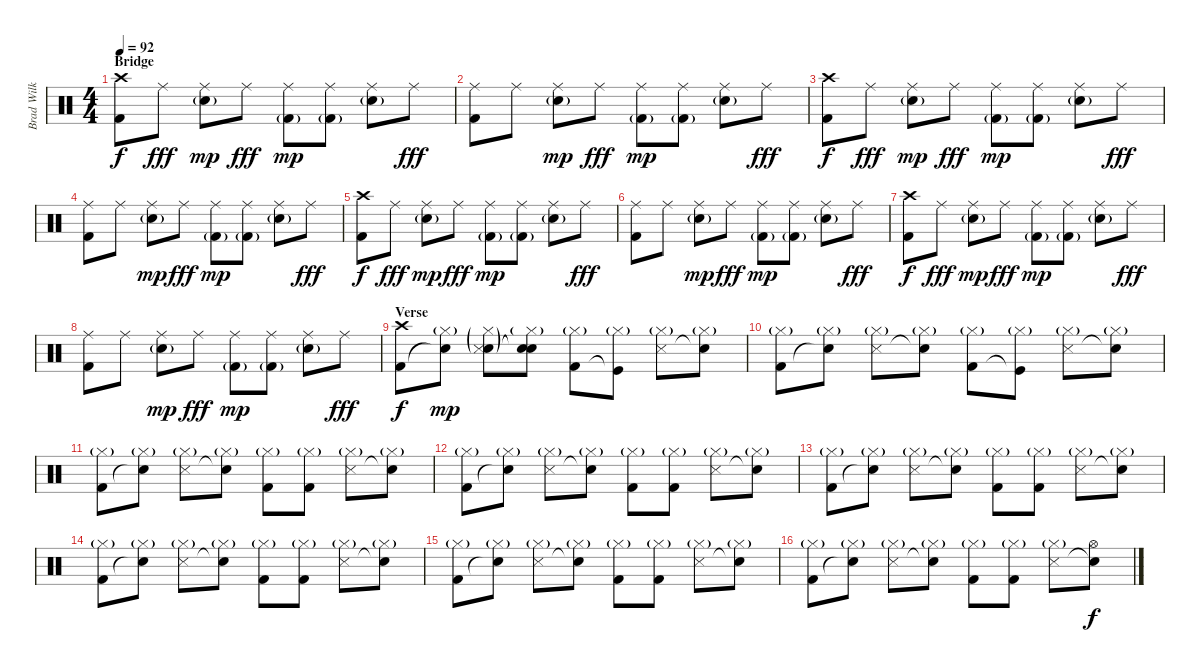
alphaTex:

\track ("Brad Wilk" "Brad Wilk") {instrument percussion}
\staff {score}
\articulation defaults
\ts (4 4)
\section ("" "Bridge")
\tempo 92
\clef neutral
\ks c
("Crash high (hit)" "Kick (hit) 2").8{dy f} "Ride (middle)".8{dy fff} ("Ride (middle)" "Electric Snare (hit)"{g}).8{dy mp} "Ride (middle)".8{dy fff} ("Ride (middle)" "Kick (hit) 2"{g}).8{dy mp} ("Ride (middle)" "Kick (hit) 2"{g}).8 ("Ride (middle)" "Electric Snare (hit)"{g}).8 "Ride (middle)".8{dy fff} |
("Ride (middle)" "Kick (hit) 2").8 "Ride (middle)".8 ("Ride (middle)" "Electric Snare (hit)"{g}).8{dy mp} "Ride (middle)".8{dy fff} ("Ride (middle)" "Kick (hit) 2"{g}).8{dy mp} ("Ride (middle)" "Kick (hit) 2"{g}).8 ("Ride (middle)" "Electric Snare (hit)"{g}).8 "Ride (middle)".8{dy fff} |
("Crash high (hit)" "Kick (hit) 2").8{dy f} "Ride (middle)".8{dy fff} ("Ride (middle)" "Electric Snare (hit)"{g}).8{dy mp} "Ride (middle)".8{dy fff} ("Ride (middle)" "Kick (hit) 2"{g}).8{dy mp} ("Ride (middle)" "Kick (hit) 2"{g}).8 ("Ride (middle)" "Electric Snare (hit)"{g}).8 "Ride (middle)".8{dy fff} |
("Ride (middle)" "Kick (hit) 2").8 "Ride (middle)".8 ("Ride (middle)" "Electric Snare (hit)"{g}).8{dy mp} "Ride (middle)".8{dy fff} ("Ride (middle)" "Kick (hit) 2"{g}).8{dy mp} ("Ride (middle)" "Kick (hit) 2"{g}).8 ("Ride (middle)" "Electric Snare (hit)"{g}).8 "Ride (middle)".8{dy fff} |
("Crash high (hit)" "Kick (hit) 2").8{dy f} "Ride (middle)".8{dy fff} ("Ride (middle)" "Electric Snare (hit)"{g}).8{dy mp} "Ride (middle)".8{dy fff} ("Ride (middle)" "Kick (hit) 2"{g}).8{dy mp} ("Ride (middle)" "Kick (hit) 2"{g}).8 ("Ride (middle)" "Electric Snare (hit)"{g}).8 "Ride (middle)".8{dy fff} |
("Ride (middle)" "Kick (hit) 2").8 "Ride (middle)".8 ("Ride (middle)" "Electric Snare (hit)"{g}).8{dy mp} "Ride (middle)".8{dy fff} ("Ride (middle)" "Kick (hit) 2"{g}).8{dy mp} ("Ride (middle)" "Kick (hit) 2"{g}).8 ("Ride (middle)" "Electric Snare (hit)"{g}).8 "Ride (middle)".8{dy fff} |
("Crash high (hit)" "Kick (hit) 2").8{dy f} "Ride (middle)".8{dy fff} ("Ride (middle)" "Electric Snare (hit)"{g}).8{dy mp} "Ride (middle)".8{dy fff} ("Ride (middle)" "Kick (hit) 2"{g}).8{dy mp} ("Ride (middle)" "Kick (hit) 2"{g}).8 ("Ride (middle)" "Electric Snare (hit)"{g}).8 "Ride (middle)".8{dy fff} |
("Ride (middle)" "Kick (hit) 2").8 "Ride (middle)".8 ("Ride (middle)" "Electric Snare (hit)"{g}).8{dy mp} "Ride (middle)".8{dy fff} ("Ride (middle)" "Kick (hit) 2"{g}).8{dy mp} ("Ride (middle)" "Kick (hit) 2"{g}).8 ("Ride (middle)" "Electric Snare (hit)"{g}).8 "Ride (middle)".8{dy fff} |
\section ("" "Verse")
("Crash high (hit)" "Kick (hit) 2").8{dy f} ("Hi-Hat (closed)"{g} "Snare (hit)"{t}).8{dy mp} ("Hi-Hat (closed)"{g} "Electric Snare (hit)"{g} "Snare (side stick) 3"{g}).8 ("Hi-Hat (closed)"{g} "Snare (hit)"{t} "Snare (hit)"{t}).8 ("Hi-Hat (closed)"{g} "Kick (hit) 2").8 ("Hi-Hat (closed)"{g} "Kick (hit)"{t}).8 ("Hi-Hat (closed)"{g} "Snare (side stick) 3").8 ("Hi-Hat (closed)"{g} "Snare (hit)"{t}).8 |
("Hi-Hat (closed)"{g} "Kick (hit) 2").8 ("Hi-Hat (closed)"{g} "Snare (hit)"{t}).8 ("Hi-Hat (closed)"{g} "Snare (side stick) 3").8 ("Hi-Hat (closed)"{g} "Snare (hit)"{t}).8 ("Hi-Hat (closed)"{g} "Kick (hit) 2").8 ("Hi-Hat (closed)"{g} "Kick (hit)"{t}).8 ("Hi-Hat (closed)"{g} "Snare (side stick) 3").8 ("Hi-Hat (closed)"{g} "Snare (hit)"{t}).8 |
("Hi-Hat (closed)"{g} "Kick (hit) 2").8 ("Hi-Hat (closed)"{g} "Snare (hit)"{t}).8 ("Hi-Hat (closed)"{g} "Snare (side stick) 3").8 ("Hi-Hat (closed)"{g} "Snare (hit)"{t}).8 ("Hi-Hat (closed)"{g} "Kick (hit) 2").8 ("Hi-Hat (closed)"{g} "Kick (hit) 2").8 ("Hi-Hat (closed)"{g} "Snare (side stick) 3").8 ("Hi-Hat (closed)"{g} "Snare (hit)"{t}).8 |
("Hi-Hat (closed)"{g} "Kick (hit) 2").8 ("Hi-Hat (closed)"{g} "Snare (hit)"{t}).8 ("Hi-Hat (closed)"{g} "Snare (side stick) 3").8 ("Hi-Hat (closed)"{g} "Snare (hit)"{t}).8 ("Hi-Hat (closed)"{g} "Kick (hit) 2").8 ("Hi-Hat (closed)"{g} "Kick (hit) 2").8 ("Hi-Hat (closed)"{g} "Snare (side stick) 3").8 ("Hi-Hat (closed)"{g} "Snare (hit)"{t}).8 |
("Hi-Hat (closed)"{g} "Kick (hit) 2").8 ("Hi-Hat (closed)"{g} "Snare (hit)"{t}).8 ("Hi-Hat (closed)"{g} "Snare (side stick) 3").8 ("Hi-Hat (closed)"{g} "Snare (hit)"{t}).8 ("Hi-Hat (closed)"{g} "Kick (hit) 2").8 ("Hi-Hat (closed)"{g} "Kick (hit) 2").8 ("Hi-Hat (closed)"{g} "Snare (side stick) 3").8 ("Hi-Hat (closed)"{g} "Snare (hit)"{t}).8 |
("Hi-Hat (closed)"{g} "Kick (hit) 2").8 ("Hi-Hat (closed)"{g} "Snare (hit)"{t}).8 ("Hi-Hat (closed)"{g} "Snare (side stick) 3").8 ("Hi-Hat (closed)"{g} "Snare (hit)"{t}).8 ("Hi-Hat (closed)"{g} "Kick (hit) 2").8 ("Hi-Hat (closed)"{g} "Kick (hit) 2").8 ("Hi-Hat (closed)"{g} "Snare (side stick) 3").8 ("Hi-Hat (closed)"{g} "Snare (hit)"{t}).8 |
("Hi-Hat (closed)"{g} "Kick (hit) 2").8 ("Hi-Hat (closed)"{g} "Snare (hit)"{t}).8 ("Hi-Hat (closed)"{g} "Snare (side stick) 3").8 ("Hi-Hat (closed)"{g} "Snare (hit)"{t}).8 ("Hi-Hat (closed)"{g} "Kick (hit) 2").8 ("Hi-Hat (closed)"{g} "Kick (hit) 2").8 ("Hi-Hat (closed)"{g} "Snare (side stick) 3").8 ("Hi-Hat (closed)"{g} "Snare (hit)"{t}).8 |
("Hi-Hat (closed)"{g} "Kick (hit) 2").8 ("Hi-Hat (closed)"{g} "Snare (hit)"{t}).8 ("Hi-Hat (closed)"{g} "Snare (side stick) 3").8 ("Hi-Hat (closed)"{g} "Snare (hit)"{t}).8 ("Hi-Hat (closed)"{g} "Kick (hit) 2").8 ("Hi-Hat (closed)"{g} "Kick (hit) 2").8 ("Hi-Hat (closed)"{g} "Snare (side stick) 3").8 ("Hi-Hat (open)" "Snare (hit)"{t}).8{dy f}
